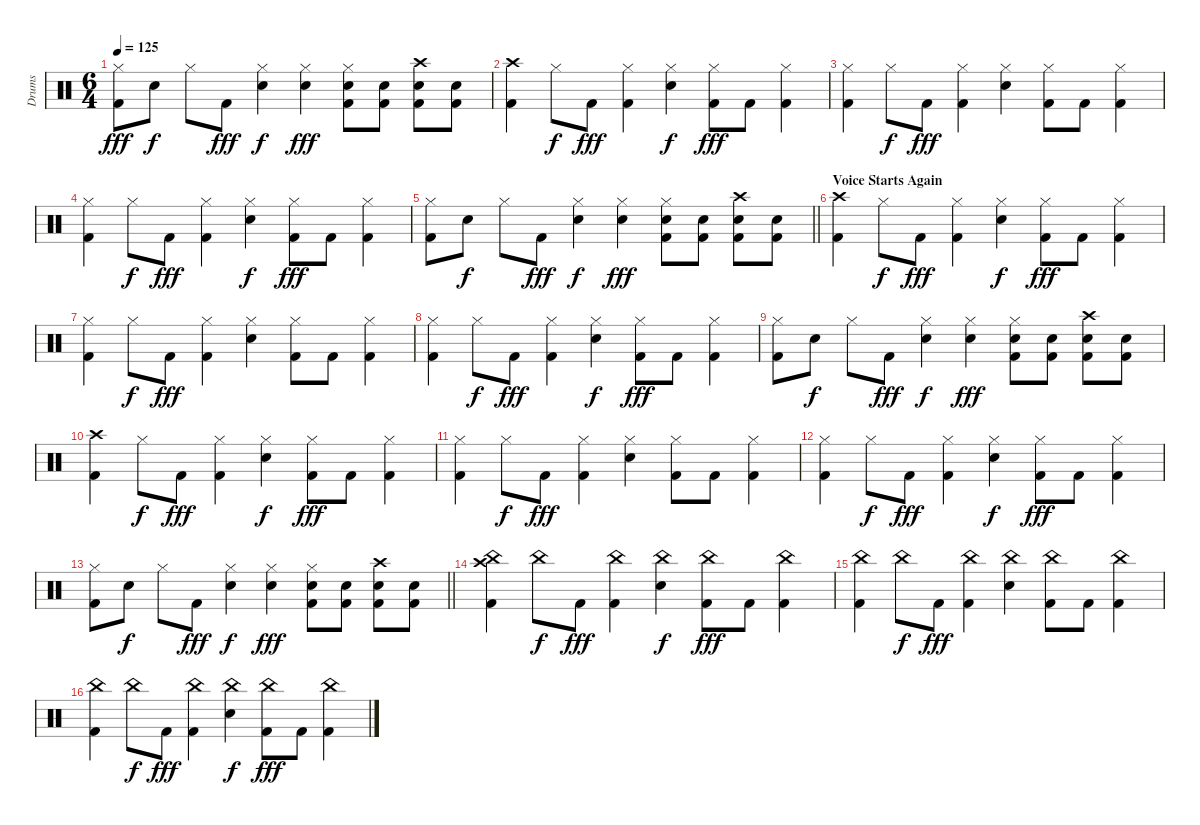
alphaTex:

\track ("Drums" "Drums") {instrument percussion}
\staff {score}
\articulation defaults
\ts (6 4)
\tempo 125
\clef neutral
\ks c
("Hi-Hat (closed)" "Kick (hit) 2").8{dy fff} "Snare (hit) 2".8{dy f} "Hi-Hat (closed)".8 "Kick (hit) 2".8{dy fff} ("Hi-Hat (closed)" "Snare (hit) 2").4{dy f} ("Hi-Hat (closed)" "Snare (hit) 2").4{dy fff} ("Hi-Hat (closed)" "Snare (hit) 2" "Kick (hit) 2").8 ("Snare (hit) 2" "Kick (hit) 2").8 ("Crash high (hit)" "Snare (hit) 2" "Kick (hit) 2").8 ("Snare (hit) 2" "Kick (hit) 2").8 |
("Crash high (hit)" "Kick (hit) 2").4 "Hi-Hat (closed)".8{dy f} "Kick (hit) 2".8{dy fff} ("Hi-Hat (closed)" "Kick (hit) 2").4 ("Hi-Hat (closed)" "Snare (hit) 2").4{dy f} ("Hi-Hat (closed)" "Kick (hit) 2").8{dy fff} "Kick (hit) 2".8 ("Hi-Hat (closed)" "Kick (hit) 2").4 |
("Hi-Hat (closed)" "Kick (hit) 2").4 "Hi-Hat (closed)".8{dy f} "Kick (hit) 2".8{dy fff} ("Hi-Hat (closed)" "Kick (hit) 2").4 ("Hi-Hat (closed)" "Snare (hit) 2").4 ("Hi-Hat (closed)" "Kick (hit) 2").8 "Kick (hit) 2".8 ("Hi-Hat (closed)" "Kick (hit) 2").4 |
("Hi-Hat (closed)" "Kick (hit) 2").4 "Hi-Hat (closed)".8{dy f} "Kick (hit) 2".8{dy fff} ("Hi-Hat (closed)" "Kick (hit) 2").4 ("Hi-Hat (closed)" "Snare (hit) 2").4{dy f} ("Hi-Hat (closed)" "Kick (hit) 2").8{dy fff} "Kick (hit) 2".8 ("Hi-Hat (closed)" "Kick (hit) 2").4 |
\barLineRight lightlight
("Hi-Hat (closed)" "Kick (hit) 2").8 "Snare (hit) 2".8{dy f} "Hi-Hat (closed)".8 "Kick (hit) 2".8{dy fff} ("Hi-Hat (closed)" "Snare (hit) 2").4{dy f} ("Hi-Hat (closed)" "Snare (hit) 2").4{dy fff} ("Hi-Hat (closed)" "Snare (hit) 2" "Kick (hit) 2").8 ("Snare (hit) 2" "Kick (hit) 2").8 ("Crash high (hit)" "Snare (hit) 2" "Kick (hit) 2").8 ("Snare (hit) 2" "Kick (hit) 2").8 |
\section ("" "Voice Starts Again")
("Crash high (hit)" "Kick (hit) 2").4 "Hi-Hat (closed)".8{dy f} "Kick (hit) 2".8{dy fff} ("Hi-Hat (closed)" "Kick (hit) 2").4 ("Hi-Hat (closed)" "Snare (hit) 2").4{dy f} ("Hi-Hat (closed)" "Kick (hit) 2").8{dy fff} "Kick (hit) 2".8 ("Hi-Hat (closed)" "Kick (hit) 2").4 |
("Hi-Hat (closed)" "Kick (hit) 2").4 "Hi-Hat (closed)".8{dy f} "Kick (hit) 2".8{dy fff} ("Hi-Hat (closed)" "Kick (hit) 2").4 ("Hi-Hat (closed)" "Snare (hit) 2").4 ("Hi-Hat (closed)" "Kick (hit) 2").8 "Kick (hit) 2".8 ("Hi-Hat (closed)" "Kick (hit) 2").4 |
("Hi-Hat (closed)" "Kick (hit) 2").4 "Hi-Hat (closed)".8{dy f} "Kick (hit) 2".8{dy fff} ("Hi-Hat (closed)" "Kick (hit) 2").4 ("Hi-Hat (closed)" "Snare (hit) 2").4{dy f} ("Hi-Hat (closed)" "Kick (hit) 2").8{dy fff} "Kick (hit) 2".8 ("Hi-Hat (closed)" "Kick (hit) 2").4 |
("Hi-Hat (closed)" "Kick (hit) 2").8 "Snare (hit) 2".8{dy f} "Hi-Hat (closed)".8 "Kick (hit) 2".8{dy fff} ("Hi-Hat (closed)" "Snare (hit) 2").4{dy f} ("Hi-Hat (closed)" "Snare (hit) 2").4{dy fff} ("Hi-Hat (closed)" "Snare (hit) 2" "Kick (hit) 2").8 ("Snare (hit) 2" "Kick (hit) 2").8 ("Crash high (hit)" "Snare (hit) 2" "Kick (hit) 2").8 ("Snare (hit) 2" "Kick (hit) 2").8 |
("Crash high (hit)" "Kick (hit) 2").4 "Hi-Hat (closed)".8{dy f} "Kick (hit) 2".8{dy fff} ("Hi-Hat (closed)" "Kick (hit) 2").4 ("Hi-Hat (closed)" "Snare (hit) 2").4{dy f} ("Hi-Hat (closed)" "Kick (hit) 2").8{dy fff} "Kick (hit) 2".8 ("Hi-Hat (closed)" "Kick (hit) 2").4 |
("Hi-Hat (closed)" "Kick (hit) 2").4 "Hi-Hat (closed)".8{dy f} "Kick (hit) 2".8{dy fff} ("Hi-Hat (closed)" "Kick (hit) 2").4 ("Hi-Hat (closed)" "Snare (hit) 2").4 ("Hi-Hat (closed)" "Kick (hit) 2").8 "Kick (hit) 2".8 ("Hi-Hat (closed)" "Kick (hit) 2").4 |
("Hi-Hat (closed)" "Kick (hit) 2").4 "Hi-Hat (closed)".8{dy f} "Kick (hit) 2".8{dy fff} ("Hi-Hat (closed)" "Kick (hit) 2").4 ("Hi-Hat (closed)" "Snare (hit) 2").4{dy f} ("Hi-Hat (closed)" "Kick (hit) 2").8{dy fff} "Kick (hit) 2".8 ("Hi-Hat (closed)" "Kick (hit) 2").4 |
\barLineRight lightlight
("Hi-Hat (closed)" "Kick (hit) 2").8 "Snare (hit) 2".8{dy f} "Hi-Hat (closed)".8 "Kick (hit) 2".8{dy fff} ("Hi-Hat (closed)" "Snare (hit) 2").4{dy f} ("Hi-Hat (closed)" "Snare (hit) 2").4{dy fff} ("Hi-Hat (closed)" "Snare (hit) 2" "Kick (hit) 2").8 ("Snare (hit) 2" "Kick (hit) 2").8 ("Crash high (hit)" "Snare (hit) 2" "Kick (hit) 2").8 ("Snare (hit) 2" "Kick (hit) 2").8 |
("Crash high (hit)" "China (hit)" "Kick (hit) 2").4 "China (hit)".8{dy f} "Kick (hit) 2".8{dy fff} ("China (hit)" "Kick (hit) 2").4 ("China (hit)" "Snare (hit) 2").4{dy f} ("China (hit)" "Kick (hit) 2").8{dy fff} "Kick (hit) 2".8 ("China (hit)" "Kick (hit) 2").4 |
("China (hit)" "Kick (hit) 2").4 "China (hit)".8{dy f} "Kick (hit) 2".8{dy fff} ("China (hit)" "Kick (hit) 2").4 ("China (hit)" "Snare (hit) 2").4 ("China (hit)" "Kick (hit) 2").8 "Kick (hit) 2".8 ("China (hit)" "Kick (hit) 2").4 |
("China (hit)" "Kick (hit) 2").4 "China (hit)".8{dy f} "Kick (hit) 2".8{dy fff} ("China (hit)" "Kick (hit) 2").4 ("China (hit)" "Snare (hit) 2").4{dy f} ("China (hit)" "Kick (hit) 2").8{dy fff} "Kick (hit) 2".8 ("China (hit)" "Kick (hit) 2").4
